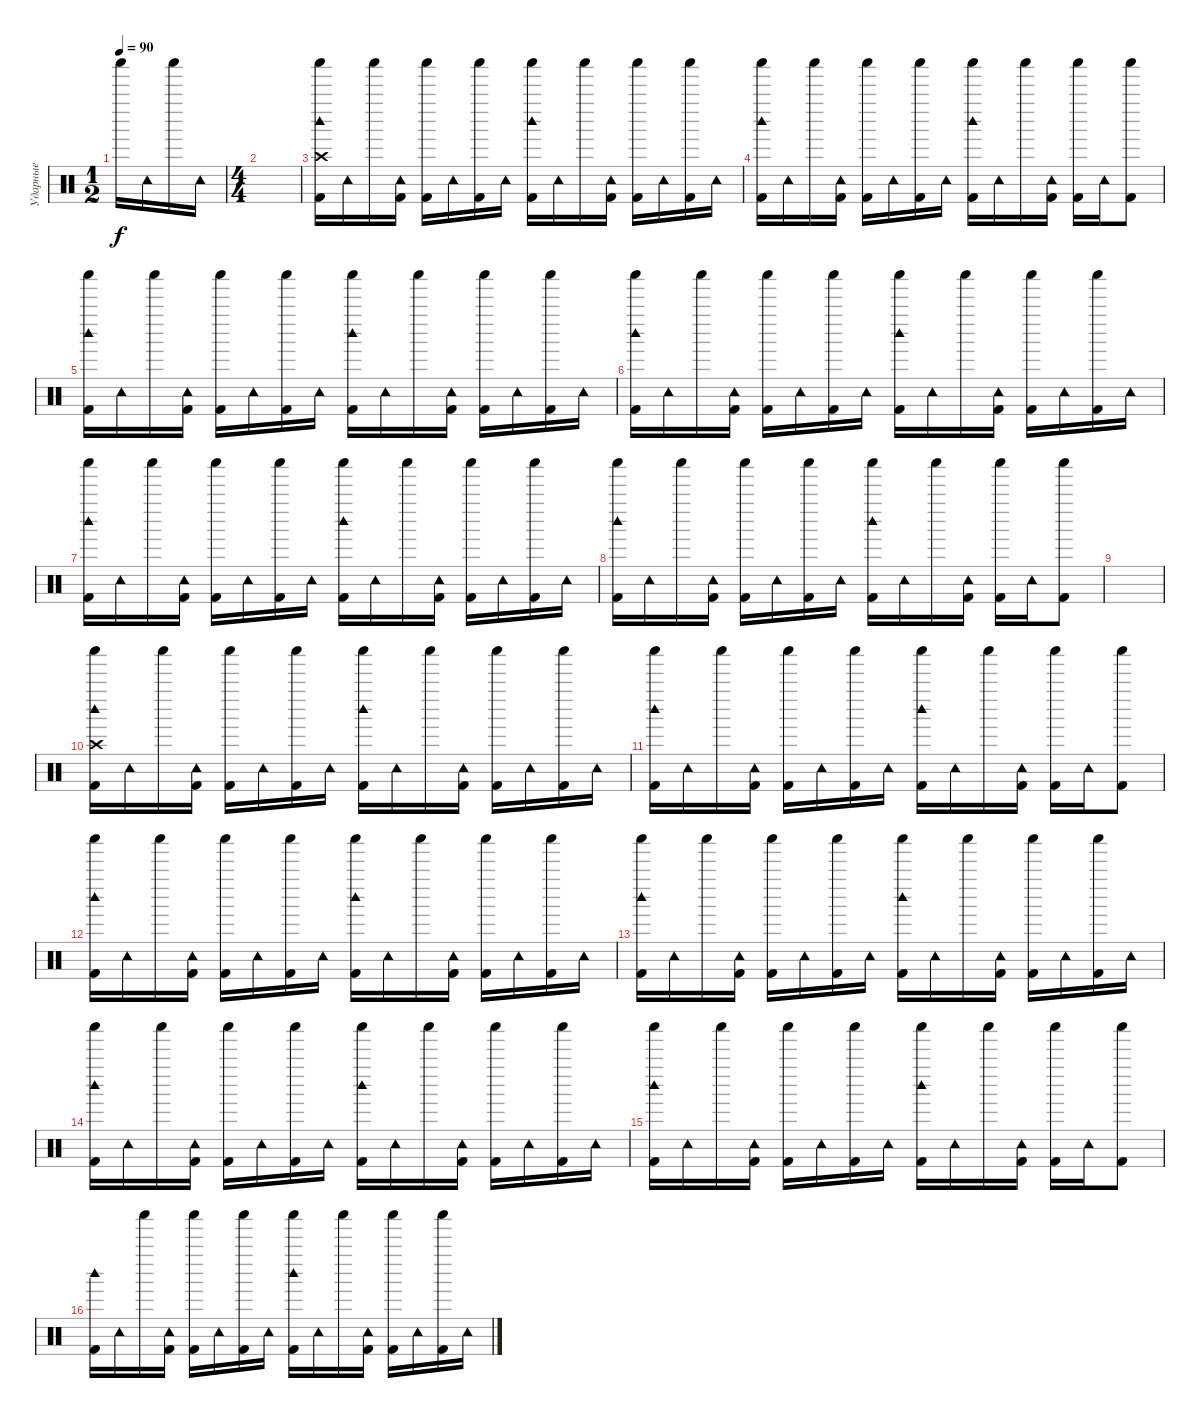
\track ("Ударные" "Ударные") {instrument percussion}
\staff {score}
\articulation defaults
\ts (1 2)
\tempo 90
\clef neutral
\ks c "Shaker (hit)".16{dy f} "Tambourine (hit)".16 "Shaker (hit)".16 "Tambourine (hit)".16
|
\ts (4 4)
|
("Shaker (hit)" "Kick (hit) 2" "Woodblock high (hit)" "Crash high (hit)").16 "Tambourine (hit)".16 "Shaker (hit)".16 ("Tambourine (hit)" "Kick (hit) 2").16 ("Shaker (hit)" "Kick (hit) 2").16 "Tambourine (hit)".16 ("Shaker (hit)" "Kick (hit) 2").16 "Tambourine (hit)".16 ("Shaker (hit)" "Kick (hit) 2" "Woodblock high (hit)").16 "Tambourine (hit)".16 "Shaker (hit)".16 ("Tambourine (hit)" "Kick (hit) 2").16 ("Shaker (hit)" "Kick (hit) 2").16 "Tambourine (hit)".16 ("Shaker (hit)" "Kick (hit) 2").16 "Tambourine (hit)".16 |
("Shaker (hit)" "Kick (hit) 2" "Woodblock high (hit)").16 "Tambourine (hit)".16 "Shaker (hit)".16 ("Tambourine (hit)" "Kick (hit) 2").16 ("Shaker (hit)" "Kick (hit) 2").16 "Tambourine (hit)".16 ("Shaker (hit)" "Kick (hit) 2").16 "Tambourine (hit)".16 ("Shaker (hit)" "Kick (hit) 2" "Woodblock high (hit)").16 "Tambourine (hit)".16 "Shaker (hit)".16 ("Tambourine (hit)" "Kick (hit) 2").16 ("Shaker (hit)" "Kick (hit) 2").16 "Tambourine (hit)".16 ("Shaker (hit)" "Kick (hit) 2").8 |
("Shaker (hit)" "Kick (hit) 2" "Woodblock high (hit)").16 "Tambourine (hit)".16 "Shaker (hit)".16 ("Tambourine (hit)" "Kick (hit) 2").16 ("Shaker (hit)" "Kick (hit) 2").16 "Tambourine (hit)".16 ("Shaker (hit)" "Kick (hit) 2").16 "Tambourine (hit)".16 ("Shaker (hit)" "Kick (hit) 2" "Woodblock high (hit)").16 "Tambourine (hit)".16 "Shaker (hit)".16 ("Tambourine (hit)" "Kick (hit) 2").16 ("Shaker (hit)" "Kick (hit) 2").16 "Tambourine (hit)".16 ("Shaker (hit)" "Kick (hit) 2").16 "Tambourine (hit)".16 |
("Shaker (hit)" "Kick (hit) 2" "Woodblock high (hit)").16 "Tambourine (hit)".16 "Shaker (hit)".16 ("Tambourine (hit)" "Kick (hit) 2").16 ("Shaker (hit)" "Kick (hit) 2").16 "Tambourine (hit)".16 ("Shaker (hit)" "Kick (hit) 2").16 "Tambourine (hit)".16 ("Shaker (hit)" "Kick (hit) 2" "Woodblock high (hit)").16 "Tambourine (hit)".16 "Shaker (hit)".16 ("Tambourine (hit)" "Kick (hit) 2").16 ("Shaker (hit)" "Kick (hit) 2").16 "Tambourine (hit)".16 ("Shaker (hit)" "Kick (hit) 2").16 "Tambourine (hit)".16 |
("Shaker (hit)" "Kick (hit) 2" "Woodblock high (hit)").16 "Tambourine (hit)".16 "Shaker (hit)".16 ("Tambourine (hit)" "Kick (hit) 2").16 ("Shaker (hit)" "Kick (hit) 2").16 "Tambourine (hit)".16 ("Shaker (hit)" "Kick (hit) 2").16 "Tambourine (hit)".16 ("Shaker (hit)" "Kick (hit) 2" "Woodblock high (hit)").16 "Tambourine (hit)".16 "Shaker (hit)".16 ("Tambourine (hit)" "Kick (hit) 2").16 ("Shaker (hit)" "Kick (hit) 2").16 "Tambourine (hit)".16 ("Shaker (hit)" "Kick (hit) 2").16 "Tambourine (hit)".16 |
("Shaker (hit)" "Kick (hit) 2" "Woodblock high (hit)").16 "Tambourine (hit)".16 "Shaker (hit)".16 ("Tambourine (hit)" "Kick (hit) 2").16 ("Shaker (hit)" "Kick (hit) 2").16 "Tambourine (hit)".16 ("Shaker (hit)" "Kick (hit) 2").16 "Tambourine (hit)".16 ("Shaker (hit)" "Kick (hit) 2" "Woodblock high (hit)").16 "Tambourine (hit)".16 "Shaker (hit)".16 ("Tambourine (hit)" "Kick (hit) 2").16 ("Shaker (hit)" "Kick (hit) 2").16 "Tambourine (hit)".16 ("Shaker (hit)" "Kick (hit) 2").8 |
|
("Shaker (hit)" "Kick (hit) 2" "Woodblock high (hit)" "Crash high (hit)").16 "Tambourine (hit)".16 "Shaker (hit)".16 ("Tambourine (hit)" "Kick (hit) 2").16 ("Shaker (hit)" "Kick (hit) 2").16 "Tambourine (hit)".16 ("Shaker (hit)" "Kick (hit) 2").16 "Tambourine (hit)".16 ("Shaker (hit)" "Kick (hit) 2" "Woodblock high (hit)").16 "Tambourine (hit)".16 "Shaker (hit)".16 ("Tambourine (hit)" "Kick (hit) 2").16 ("Shaker (hit)" "Kick (hit) 2").16 "Tambourine (hit)".16 ("Shaker (hit)" "Kick (hit) 2").16 "Tambourine (hit)".16 |
("Shaker (hit)" "Kick (hit) 2" "Woodblock high (hit)").16 "Tambourine (hit)".16 "Shaker (hit)".16 ("Tambourine (hit)" "Kick (hit) 2").16 ("Shaker (hit)" "Kick (hit) 2").16 "Tambourine (hit)".16 ("Shaker (hit)" "Kick (hit) 2").16 "Tambourine (hit)".16 ("Shaker (hit)" "Kick (hit) 2" "Woodblock high (hit)").16 "Tambourine (hit)".16 "Shaker (hit)".16 ("Tambourine (hit)" "Kick (hit) 2").16 ("Shaker (hit)" "Kick (hit) 2").16 "Tambourine (hit)".16 ("Shaker (hit)" "Kick (hit) 2").8 |
("Shaker (hit)" "Kick (hit) 2" "Woodblock high (hit)").16 "Tambourine (hit)".16 "Shaker (hit)".16 ("Tambourine (hit)" "Kick (hit) 2").16 ("Shaker (hit)" "Kick (hit) 2").16 "Tambourine (hit)".16 ("Shaker (hit)" "Kick (hit) 2").16 "Tambourine (hit)".16 ("Shaker (hit)" "Kick (hit) 2" "Woodblock high (hit)").16 "Tambourine (hit)".16 "Shaker (hit)".16 ("Tambourine (hit)" "Kick (hit) 2").16 ("Shaker (hit)" "Kick (hit) 2").16 "Tambourine (hit)".16 ("Shaker (hit)" "Kick (hit) 2").16 "Tambourine (hit)".16 |
("Shaker (hit)" "Kick (hit) 2" "Woodblock high (hit)").16 "Tambourine (hit)".16 "Shaker (hit)".16 ("Tambourine (hit)" "Kick (hit) 2").16 ("Shaker (hit)" "Kick (hit) 2").16 "Tambourine (hit)".16 ("Shaker (hit)" "Kick (hit) 2").16 "Tambourine (hit)".16 ("Shaker (hit)" "Kick (hit) 2" "Woodblock high (hit)").16 "Tambourine (hit)".16 "Shaker (hit)".16 ("Tambourine (hit)" "Kick (hit) 2").16 ("Shaker (hit)" "Kick (hit) 2").16 "Tambourine (hit)".16 ("Shaker (hit)" "Kick (hit) 2").16 "Tambourine (hit)".16 |
("Shaker (hit)" "Kick (hit) 2" "Woodblock high (hit)").16 "Tambourine (hit)".16 "Shaker (hit)".16 ("Tambourine (hit)" "Kick (hit) 2").16 ("Shaker (hit)" "Kick (hit) 2").16 "Tambourine (hit)".16 ("Shaker (hit)" "Kick (hit) 2").16 "Tambourine (hit)".16 ("Shaker (hit)" "Kick (hit) 2" "Woodblock high (hit)").16 "Tambourine (hit)".16 "Shaker (hit)".16 ("Tambourine (hit)" "Kick (hit) 2").16 ("Shaker (hit)" "Kick (hit) 2").16 "Tambourine (hit)".16 ("Shaker (hit)" "Kick (hit) 2").16 "Tambourine (hit)".16 |
("Shaker (hit)" "Kick (hit) 2" "Woodblock high (hit)").16 "Tambourine (hit)".16 "Shaker (hit)".16 ("Tambourine (hit)" "Kick (hit) 2").16 ("Shaker (hit)" "Kick (hit) 2").16 "Tambourine (hit)".16 ("Shaker (hit)" "Kick (hit) 2").16 "Tambourine (hit)".16 ("Shaker (hit)" "Kick (hit) 2" "Woodblock high (hit)").16 "Tambourine (hit)".16 "Shaker (hit)".16 ("Tambourine (hit)" "Kick (hit) 2").16 ("Shaker (hit)" "Kick (hit) 2").16 "Tambourine (hit)".16 ("Shaker (hit)" "Kick (hit) 2").8 |
("Kick (hit) 2" "Woodblock high (hit)").16 "Tambourine (hit)".16 "Shaker (hit)".16 ("Tambourine (hit)" "Kick (hit) 2").16 ("Shaker (hit)" "Kick (hit) 2").16 "Tambourine (hit)".16 ("Shaker (hit)" "Kick (hit) 2").16 "Tambourine (hit)".16 ("Shaker (hit)" "Kick (hit) 2" "Woodblock high (hit)").16 "Tambourine (hit)".16 "Shaker (hit)".16 ("Tambourine (hit)" "Kick (hit) 2").16 ("Shaker (hit)" "Kick (hit) 2").16 "Tambourine (hit)".16 ("Shaker (hit)" "Kick (hit) 2").16 "Tambourine (hit)".16
